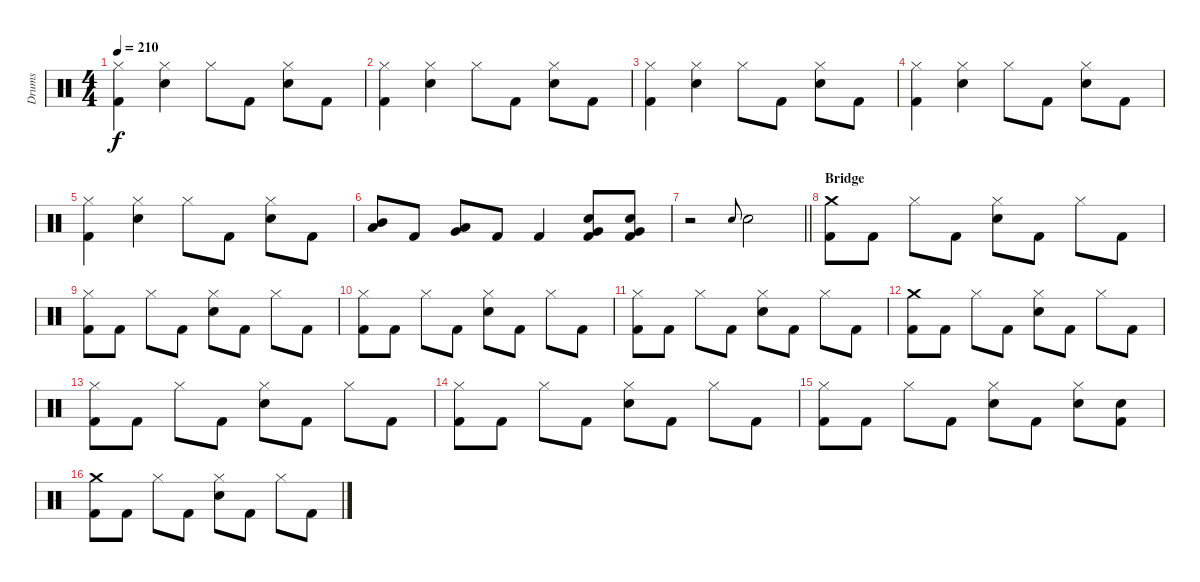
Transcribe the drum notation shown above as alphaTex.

\track ("Drums" "Drums") {instrument percussion}
\staff {score}
\articulation defaults
\ts (4 4)
\tempo 210
\clef neutral
\ks c
("Kick (hit) 2" "Hi-Hat (closed)").4{dy f} ("Snare (hit) 2" "Hi-Hat (closed)").4 "Hi-Hat (closed)".8 "Kick (hit) 2".8 ("Snare (hit) 2" "Hi-Hat (closed)").8 "Kick (hit) 2".8 |
("Kick (hit) 2" "Hi-Hat (closed)").4 ("Snare (hit) 2" "Hi-Hat (closed)").4 "Hi-Hat (closed)".8 "Kick (hit) 2".8 ("Snare (hit) 2" "Hi-Hat (closed)").8 "Kick (hit) 2".8 |
("Kick (hit) 2" "Hi-Hat (closed)").4 ("Snare (hit) 2" "Hi-Hat (closed)").4 "Hi-Hat (closed)".8 "Kick (hit) 2".8 ("Snare (hit) 2" "Hi-Hat (closed)").8 "Kick (hit) 2".8 |
("Kick (hit) 2" "Hi-Hat (closed)").4 ("Snare (hit) 2" "Hi-Hat (closed)").4 "Hi-Hat (closed)".8 "Kick (hit) 2".8 ("Snare (hit) 2" "Hi-Hat (closed)").8 "Kick (hit) 2".8 |
("Kick (hit) 2" "Hi-Hat (closed)").4 ("Snare (hit) 2" "Hi-Hat (closed)").4 "Hi-Hat (closed)".8 "Kick (hit) 2".8 ("Snare (hit) 2" "Hi-Hat (closed)").8 "Kick (hit) 2".8 |
("Mid Tom (hit)" "Low Tom (hit)").8 "Kick (hit) 2".8 ("Low Tom (hit)" "Very Low Tom (hit)").8 "Kick (hit) 2".8 "Kick (hit) 2".4 ("Kick (hit) 2" "Very Low Tom (hit)" "Snare (hit) 2").8 ("Kick (hit) 2" "Very Low Tom (hit)" "Snare (hit) 2").8 |
\barLineRight lightlight
r.2 "Snare (hit) 2".8{gr onbeat} "Snare (hit) 2".2 |
\section ("" "Bridge")
("Kick (hit) 2" "Crash medium (hit)").8 "Kick (hit) 2".8 "Hi-Hat (closed)".8 "Kick (hit) 2".8 ("Snare (hit) 2" "Hi-Hat (closed)").8 "Kick (hit) 2".8 "Hi-Hat (closed)".8 "Kick (hit) 2".8 |
("Kick (hit) 2" "Hi-Hat (closed)").8 "Kick (hit) 2".8 "Hi-Hat (closed)".8 "Kick (hit) 2".8 ("Snare (hit) 2" "Hi-Hat (closed)").8 "Kick (hit) 2".8 "Hi-Hat (closed)".8 "Kick (hit) 2".8 |
("Kick (hit) 2" "Hi-Hat (closed)").8 "Kick (hit) 2".8 "Hi-Hat (closed)".8 "Kick (hit) 2".8 ("Snare (hit) 2" "Hi-Hat (closed)").8 "Kick (hit) 2".8 "Hi-Hat (closed)".8 "Kick (hit) 2".8 |
("Kick (hit) 2" "Hi-Hat (closed)").8 "Kick (hit) 2".8 "Hi-Hat (closed)".8 "Kick (hit) 2".8 ("Snare (hit) 2" "Hi-Hat (closed)").8 "Kick (hit) 2".8 "Hi-Hat (closed)".8 "Kick (hit) 2".8 |
("Kick (hit) 2" "Crash medium (hit)").8 "Kick (hit) 2".8 "Hi-Hat (closed)".8 "Kick (hit) 2".8 ("Snare (hit) 2" "Hi-Hat (closed)").8 "Kick (hit) 2".8 "Hi-Hat (closed)".8 "Kick (hit) 2".8 |
("Kick (hit) 2" "Hi-Hat (closed)").8 "Kick (hit) 2".8 "Hi-Hat (closed)".8 "Kick (hit) 2".8 ("Snare (hit) 2" "Hi-Hat (closed)").8 "Kick (hit) 2".8 "Hi-Hat (closed)".8 "Kick (hit) 2".8 |
("Kick (hit) 2" "Hi-Hat (closed)").8 "Kick (hit) 2".8 "Hi-Hat (closed)".8 "Kick (hit) 2".8 ("Snare (hit) 2" "Hi-Hat (closed)").8 "Kick (hit) 2".8 "Hi-Hat (closed)".8 "Kick (hit) 2".8 |
("Kick (hit) 2" "Hi-Hat (closed)").8 "Kick (hit) 2".8 "Hi-Hat (closed)".8 "Kick (hit) 2".8 ("Snare (hit) 2" "Hi-Hat (closed)").8 "Kick (hit) 2".8 ("Snare (hit) 2" "Hi-Hat (closed)").8 ("Kick (hit) 2" "Snare (hit) 2").8 |
("Kick (hit) 2" "Crash medium (hit)").8 "Kick (hit) 2".8 "Hi-Hat (closed)".8 "Kick (hit) 2".8 ("Snare (hit) 2" "Hi-Hat (closed)").8 "Kick (hit) 2".8 "Hi-Hat (closed)".8 "Kick (hit) 2".8
